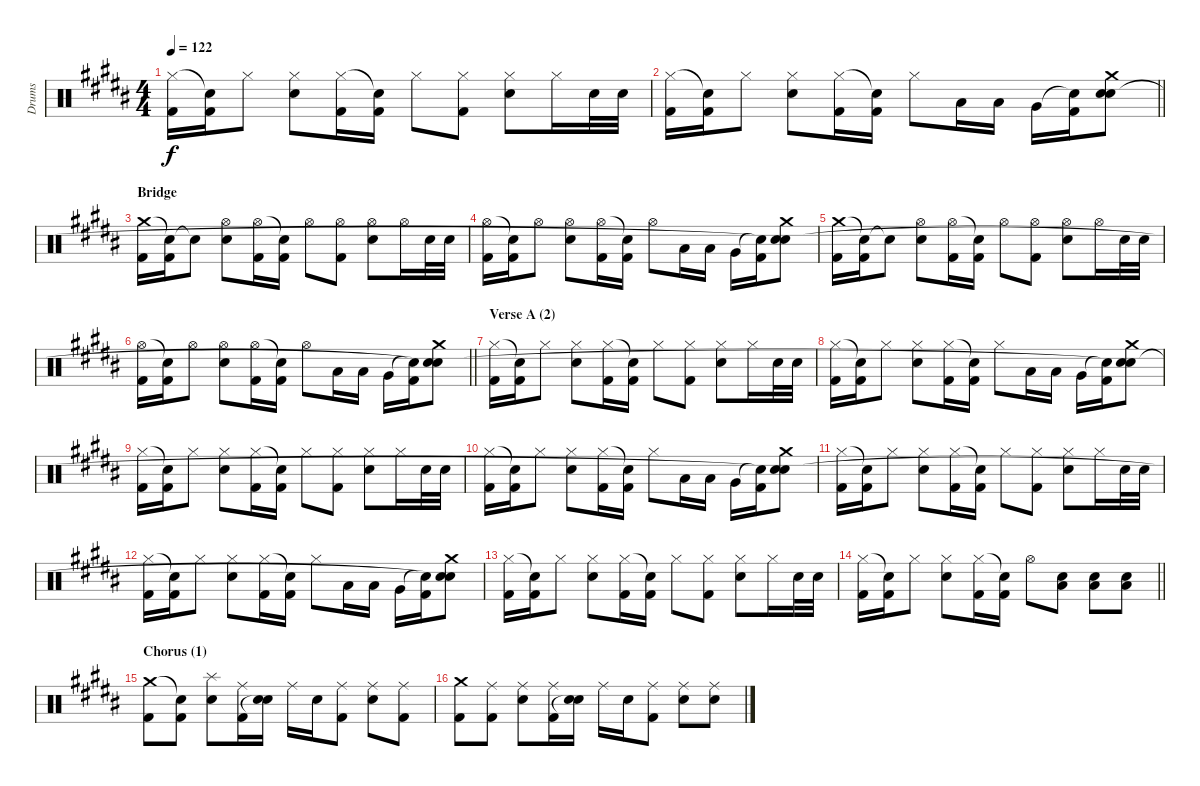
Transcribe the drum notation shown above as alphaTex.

\track ("Drums" "Drums") {instrument percussion}
\staff {score}
\articulation defaults
\ts (4 4)
\tempo 122
\clef neutral
\ks g#minor
("Hi-Hat (closed)" "Kick (hit) 2").16{dy f} ("Snare (hit)"{t} "Kick (hit) 2").16 "Hi-Hat (closed)".8 ("Hi-Hat (closed)" "Electric Snare (hit)").8 ("Hi-Hat (closed)" "Kick (hit) 2").16 ("Snare (hit)"{t} "Kick (hit) 2").16 "Hi-Hat (closed)".8 ("Hi-Hat (closed)" "Kick (hit) 2").8 ("Hi-Hat (closed)" "Electric Snare (hit)").8 "Hi-Hat (closed)".16 "Electric Snare (hit)".32 "Electric Snare (hit)".32 |
\barLineRight lightlight
("Hi-Hat (closed)" "Kick (hit) 2").16 ("Snare (hit)"{t} "Kick (hit) 2").16 "Hi-Hat (closed)".8 ("Hi-Hat (closed)" "Electric Snare (hit)").8 ("Hi-Hat (closed)" "Kick (hit) 2").16 ("Snare (hit)"{t} "Kick (hit) 2").16 "Hi-Hat (closed)".8 "Low Tom (hit)".16 "Low Tom (hit)".16 "Very Low Tom (hit)".16 ("Snare (hit)"{t} "Kick (hit) 2").16 ("Crash medium (hit)" "Electric Snare (hit)" "Snare (hit)"{t}).8 |
\section ("" "Bridge")
("Crash medium (hit)" "Kick (hit) 2").16 ("Snare (hit)"{t} "Kick (hit) 2").16 "Snare (hit)"{t}.8 ("Hi-Hat (open)" "Electric Snare (hit)").8 ("Hi-Hat (open)" "Kick (hit) 2").16 ("Snare (hit)"{t} "Kick (hit) 2").16 "Hi-Hat (open)".8 ("Hi-Hat (open)" "Kick (hit) 2").8 ("Hi-Hat (open)" "Electric Snare (hit)").8 "Hi-Hat (open)".16 "Electric Snare (hit)".32 "Electric Snare (hit)".32 |
("Hi-Hat (open)" "Kick (hit) 2").16 ("Snare (hit)"{t} "Kick (hit) 2").16 "Hi-Hat (open)".8 ("Hi-Hat (open)" "Electric Snare (hit)").8 ("Hi-Hat (open)" "Kick (hit) 2").16 ("Snare (hit)"{t} "Kick (hit) 2").16 "Hi-Hat (open)".8 "Low Tom (hit)".16 "Low Tom (hit)".16 "Very Low Tom (hit)".16 ("Snare (hit)"{t} "Kick (hit) 2").16 ("Crash medium (hit)" "Electric Snare (hit)" "Snare (hit)"{t}).8 |
("Crash medium (hit)" "Kick (hit) 2").16 ("Snare (hit)"{t} "Kick (hit) 2").16 "Snare (hit)"{t}.8 ("Hi-Hat (open)" "Electric Snare (hit)").8 ("Hi-Hat (open)" "Kick (hit) 2").16 ("Snare (hit)"{t} "Kick (hit) 2").16 "Hi-Hat (open)".8 ("Hi-Hat (open)" "Kick (hit) 2").8 ("Hi-Hat (open)" "Electric Snare (hit)").8 "Hi-Hat (open)".16 "Electric Snare (hit)".32 "Electric Snare (hit)".32 |
\barLineRight lightlight
("Hi-Hat (open)" "Kick (hit) 2").16 ("Snare (hit)"{t} "Kick (hit) 2").16 "Hi-Hat (open)".8 ("Hi-Hat (open)" "Electric Snare (hit)").8 ("Hi-Hat (open)" "Kick (hit) 2").16 ("Snare (hit)"{t} "Kick (hit) 2").16 "Hi-Hat (open)".8 "Low Tom (hit)".16 "Low Tom (hit)".16 "Very Low Tom (hit)".16 ("Snare (hit)"{t} "Kick (hit) 2").16 ("Crash medium (hit)" "Electric Snare (hit)" "Snare (hit)"{t}).8 |
\section ("" "Verse A (2)")
("Hi-Hat (closed)" "Kick (hit) 2").16 ("Snare (hit)"{t} "Kick (hit) 2").16 "Hi-Hat (closed)".8 ("Hi-Hat (closed)" "Electric Snare (hit)").8 ("Hi-Hat (closed)" "Kick (hit) 2").16 ("Snare (hit)"{t} "Kick (hit) 2").16 "Hi-Hat (closed)".8 ("Hi-Hat (closed)" "Kick (hit) 2").8 ("Hi-Hat (closed)" "Electric Snare (hit)").8 "Hi-Hat (closed)".16 "Electric Snare (hit)".32 "Electric Snare (hit)".32 |
("Hi-Hat (closed)" "Kick (hit) 2").16 ("Snare (hit)"{t} "Kick (hit) 2").16 "Hi-Hat (closed)".8 ("Hi-Hat (closed)" "Electric Snare (hit)").8 ("Hi-Hat (closed)" "Kick (hit) 2").16 ("Snare (hit)"{t} "Kick (hit) 2").16 "Hi-Hat (closed)".8 "Low Tom (hit)".16 "Low Tom (hit)".16 "Very Low Tom (hit)".16 ("Snare (hit)"{t} "Kick (hit) 2").16 ("Crash medium (hit)" "Electric Snare (hit)" "Snare (hit)"{t}).8 |
("Hi-Hat (closed)" "Kick (hit) 2").16 ("Snare (hit)"{t} "Kick (hit) 2").16 "Hi-Hat (closed)".8 ("Hi-Hat (closed)" "Electric Snare (hit)").8 ("Hi-Hat (closed)" "Kick (hit) 2").16 ("Snare (hit)"{t} "Kick (hit) 2").16 "Hi-Hat (closed)".8 ("Hi-Hat (closed)" "Kick (hit) 2").8 ("Hi-Hat (closed)" "Electric Snare (hit)").8 "Hi-Hat (closed)".16 "Electric Snare (hit)".32 "Electric Snare (hit)".32 |
("Hi-Hat (closed)" "Kick (hit) 2").16 ("Snare (hit)"{t} "Kick (hit) 2").16 "Hi-Hat (closed)".8 ("Hi-Hat (closed)" "Electric Snare (hit)").8 ("Hi-Hat (closed)" "Kick (hit) 2").16 ("Snare (hit)"{t} "Kick (hit) 2").16 "Hi-Hat (closed)".8 "Low Tom (hit)".16 "Low Tom (hit)".16 "Very Low Tom (hit)".16 ("Snare (hit)"{t} "Kick (hit) 2").16 ("Crash medium (hit)" "Electric Snare (hit)" "Snare (hit)"{t}).8 |
("Hi-Hat (closed)" "Kick (hit) 2").16 ("Snare (hit)"{t} "Kick (hit) 2").16 "Hi-Hat (closed)".8 ("Hi-Hat (closed)" "Electric Snare (hit)").8 ("Hi-Hat (closed)" "Kick (hit) 2").16 ("Snare (hit)"{t} "Kick (hit) 2").16 "Hi-Hat (closed)".8 ("Hi-Hat (closed)" "Kick (hit) 2").8 ("Hi-Hat (closed)" "Electric Snare (hit)").8 "Hi-Hat (closed)".16 "Electric Snare (hit)".32 "Electric Snare (hit)".32 |
("Hi-Hat (closed)" "Kick (hit) 2").16 ("Snare (hit)"{t} "Kick (hit) 2").16 "Hi-Hat (closed)".8 ("Hi-Hat (closed)" "Electric Snare (hit)").8 ("Hi-Hat (closed)" "Kick (hit) 2").16 ("Snare (hit)"{t} "Kick (hit) 2").16 "Hi-Hat (closed)".8 "Low Tom (hit)".16 "Low Tom (hit)".16 "Very Low Tom (hit)".16 ("Snare (hit)"{t} "Kick (hit) 2").16 ("Crash medium (hit)" "Electric Snare (hit)" "Snare (hit)"{t}).8 |
("Hi-Hat (closed)" "Kick (hit) 2").16 ("Snare (hit)"{t} "Kick (hit) 2").16 "Hi-Hat (closed)".8 ("Hi-Hat (closed)" "Electric Snare (hit)").8 ("Hi-Hat (closed)" "Kick (hit) 2").16 ("Snare (hit)"{t} "Kick (hit) 2").16 "Hi-Hat (closed)".8 ("Hi-Hat (closed)" "Kick (hit) 2").8 ("Hi-Hat (closed)" "Electric Snare (hit)").8 "Hi-Hat (closed)".16 "Electric Snare (hit)".32 "Electric Snare (hit)".32 |
\barLineRight lightlight
("Hi-Hat (closed)" "Kick (hit) 2").16 ("Snare (hit)"{t} "Kick (hit) 2").16 "Hi-Hat (closed)".8 ("Hi-Hat (closed)" "Electric Snare (hit)").8 ("Hi-Hat (closed)" "Kick (hit) 2").16 ("Snare (hit)"{t} "Kick (hit) 2").16 "Hi-Hat (open)".8 ("Electric Snare (hit)" "Low Floor Tom (hit)").8 ("Electric Snare (hit)" "Low Floor Tom (hit)").8 ("Electric Snare (hit)" "Low Floor Tom (hit)").8 |
\section ("" "Chorus (1)")
("Crash medium (hit)" "Kick (hit) 2").8 ("Snare (hit)"{t} "Kick (hit) 2").8 ("Splash (hit)" "Electric Snare (hit)").8 ("Ride (middle)" "Kick (hit) 2").16 ("Electric Snare (hit)" "Snare (hit)"{t}).16 "Ride (middle)".16 "Electric Snare (hit)".16 ("Ride (middle)" "Kick (hit) 2").8 ("Ride (middle)" "Electric Snare (hit)").8 ("Ride (middle)" "Kick (hit) 2").8 |
("Crash medium (hit)" "Kick (hit) 2").8 ("Ride (middle)" "Kick (hit) 2").8 ("Ride (middle)" "Electric Snare (hit)").8 ("Ride (middle)" "Kick (hit) 2").16 ("Electric Snare (hit)" "Snare (hit)"{t}).16 "Ride (middle)".16 "Electric Snare (hit)".16 ("Ride (middle)" "Kick (hit) 2").8 ("Ride (middle)" "Electric Snare (hit)").8 ("Ride (middle)" "Electric Snare (hit)").8
